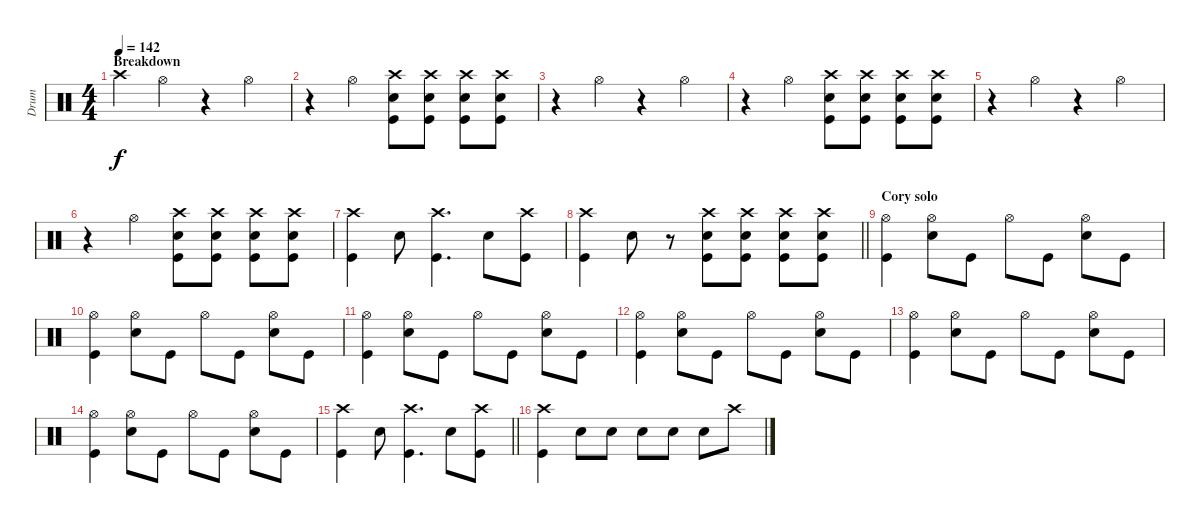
\track ("Drum" "Drum") {instrument percussion}
\staff {score}
\articulation defaults
\ts (4 4)
\section ("" "Breakdown")
\tempo 142
\clef neutral
\ks c "Crash high (hit)".4{dy f} "Hi-Hat (open)".4
r.4 "Hi-Hat (open)".4 |
r.4 "Hi-Hat (open)".4 ("Snare (hit) 2" "Kick (hit)" "Crash high (hit)").8 ("Snare (hit) 2" "Kick (hit)" "Crash high (hit)").8 ("Snare (hit) 2" "Kick (hit)" "Crash high (hit)").8 ("Snare (hit) 2" "Kick (hit)" "Crash high (hit)").8 |
r.4 "Hi-Hat (open)".4 r.4 "Hi-Hat (open)".4 |
r.4 "Hi-Hat (open)".4 ("Snare (hit) 2" "Kick (hit)" "Crash high (hit)").8 ("Snare (hit) 2" "Kick (hit)" "Crash high (hit)").8 ("Snare (hit) 2" "Kick (hit)" "Crash high (hit)").8 ("Snare (hit) 2" "Kick (hit)" "Crash high (hit)").8 |
r.4 "Hi-Hat (open)".4 r.4 "Hi-Hat (open)".4 |
r.4 "Hi-Hat (open)".4 ("Snare (hit) 2" "Kick (hit)" "Crash high (hit)").8 ("Snare (hit) 2" "Kick (hit)" "Crash high (hit)").8 ("Snare (hit) 2" "Kick (hit)" "Crash high (hit)").8 ("Snare (hit) 2" "Kick (hit)" "Crash high (hit)").8 |
("Kick (hit)" "Crash high (hit)").4 "Snare (hit) 2".8 ("Kick (hit)" "Crash high (hit)").4{d} "Snare (hit) 2".8 ("Kick (hit)" "Crash high (hit)").8 |
\barLineRight lightlight
("Kick (hit)" "Crash high (hit)").4 "Snare (hit) 2".8 r.8 ("Kick (hit)" "Snare (hit) 2" "Crash high (hit)").8 ("Kick (hit)" "Snare (hit) 2" "Crash high (hit)").8 ("Kick (hit)" "Snare (hit) 2" "Crash high (hit)").8 ("Kick (hit)" "Snare (hit) 2" "Crash high (hit)").8 |
\section ("" "Cory solo")
("Kick (hit)" "Hi-Hat (open)").4 ("Snare (hit) 2" "Hi-Hat (open)").8 "Kick (hit)".8 "Hi-Hat (open)".8 "Kick (hit)".8 ("Snare (hit) 2" "Hi-Hat (open)").8 "Kick (hit)".8 |
("Kick (hit)" "Hi-Hat (open)").4 ("Snare (hit) 2" "Hi-Hat (open)").8 "Kick (hit)".8 "Hi-Hat (open)".8 "Kick (hit)".8 ("Snare (hit) 2" "Hi-Hat (open)").8 "Kick (hit)".8 |
("Kick (hit)" "Hi-Hat (open)").4 ("Snare (hit) 2" "Hi-Hat (open)").8 "Kick (hit)".8 "Hi-Hat (open)".8 "Kick (hit)".8 ("Snare (hit) 2" "Hi-Hat (open)").8 "Kick (hit)".8 |
("Kick (hit)" "Hi-Hat (open)").4 ("Snare (hit) 2" "Hi-Hat (open)").8 "Kick (hit)".8 "Hi-Hat (open)".8 "Kick (hit)".8 ("Snare (hit) 2" "Hi-Hat (open)").8 "Kick (hit)".8 |
("Kick (hit)" "Hi-Hat (open)").4 ("Snare (hit) 2" "Hi-Hat (open)").8 "Kick (hit)".8 "Hi-Hat (open)".8 "Kick (hit)".8 ("Snare (hit) 2" "Hi-Hat (open)").8 "Kick (hit)".8 |
("Kick (hit)" "Hi-Hat (open)").4 ("Snare (hit) 2" "Hi-Hat (open)").8 "Kick (hit)".8 "Hi-Hat (open)".8 "Kick (hit)".8 ("Snare (hit) 2" "Hi-Hat (open)").8 "Kick (hit)".8 |
\barLineRight lightlight
("Kick (hit)" "Crash high (hit)").4 "Snare (hit) 2".8 ("Kick (hit)" "Crash high (hit)").4{d} "Snare (hit) 2".8 ("Kick (hit)" "Crash high (hit)").8 |
("Kick (hit)" "Crash high (hit)").4 "Snare (hit) 2".8 "Snare (hit) 2".8 "Snare (hit) 2".8 "Snare (hit) 2".8 "Snare (hit) 2".8 "Crash high (hit)".8
